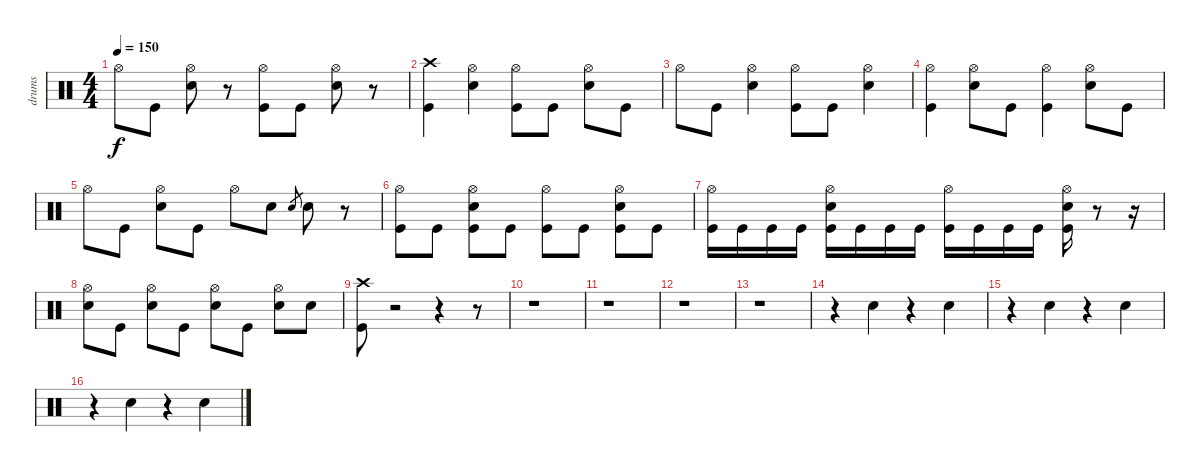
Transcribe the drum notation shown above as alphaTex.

\track ("drums" "drums") {instrument percussion}
\staff {score}
\articulation defaults
\ts (4 4)
\tempo 150
\clef neutral
\ks c "Hi-Hat (open)".8{dy f} "Kick (hit)".8
("Hi-Hat (open)" "Electric Snare (hit)").8 r.8 ("Hi-Hat (open)" "Kick (hit)").8 "Kick (hit)".8 ("Hi-Hat (open)" "Electric Snare (hit)").8 r.8 |
("Crash high (hit)" "Kick (hit)").4 ("Hi-Hat (open)" "Electric Snare (hit)").4 ("Hi-Hat (open)" "Kick (hit)").8 "Kick (hit)".8 ("Hi-Hat (open)" "Electric Snare (hit)").8 "Kick (hit)".8 |
"Hi-Hat (open)".8 "Kick (hit)".8 ("Hi-Hat (open)" "Electric Snare (hit)").4 ("Hi-Hat (open)" "Kick (hit)").8 "Kick (hit)".8 ("Hi-Hat (open)" "Electric Snare (hit)").4 |
("Hi-Hat (open)" "Kick (hit)").4 ("Hi-Hat (open)" "Electric Snare (hit)").8 "Kick (hit)".8 ("Hi-Hat (open)" "Kick (hit)").4 ("Hi-Hat (open)" "Electric Snare (hit)").8 "Kick (hit)".8 |
"Hi-Hat (open)".8 "Kick (hit)".8 ("Hi-Hat (open)" "Electric Snare (hit)").8 "Kick (hit)".8 "Hi-Hat (open)".8 "Electric Snare (hit)".8 "Electric Snare (hit)".8{gr} "Metronome (bell)".8 r.8 |
("Hi-Hat (open)" "Kick (hit)").8 "Kick (hit)".8 ("Hi-Hat (open)" "Electric Snare (hit)" "Kick (hit)").8 "Kick (hit)".8 ("Hi-Hat (open)" "Kick (hit)").8 "Kick (hit)".8 ("Hi-Hat (open)" "Electric Snare (hit)" "Kick (hit)").8 "Kick (hit)".8 |
("Hi-Hat (open)" "Kick (hit)").16 "Kick (hit)".16 "Kick (hit)".16 "Kick (hit)".16 ("Hi-Hat (open)" "Electric Snare (hit)" "Kick (hit)").16 "Kick (hit)".16 "Kick (hit)".16 "Kick (hit)".16 ("Hi-Hat (open)" "Kick (hit)").16 "Kick (hit)".16 "Kick (hit)".16 "Kick (hit)".16 ("Hi-Hat (open)" "Electric Snare (hit)" "Kick (hit)").16 r.8 r.16 |
("Hi-Hat (open)" "Electric Snare (hit)").8 "Kick (hit)".8 ("Hi-Hat (open)" "Electric Snare (hit)").8 "Kick (hit)".8 ("Hi-Hat (open)" "Electric Snare (hit)").8 "Kick (hit)".8 ("Hi-Hat (open)" "Electric Snare (hit)").8 "Electric Snare (hit)".8 |
("Crash high (hit)" "Kick (hit)").8 r.2 r.4 r.8 |
r.1 |
r.1 |
r.1 |
r.1 |
r.4 "Electric Snare (hit)".4 r.4 "Electric Snare (hit)".4 |
r.4 "Electric Snare (hit)".4 r.4 "Electric Snare (hit)".4 |
r.4 "Electric Snare (hit)".4 r.4 "Electric Snare (hit)".4
